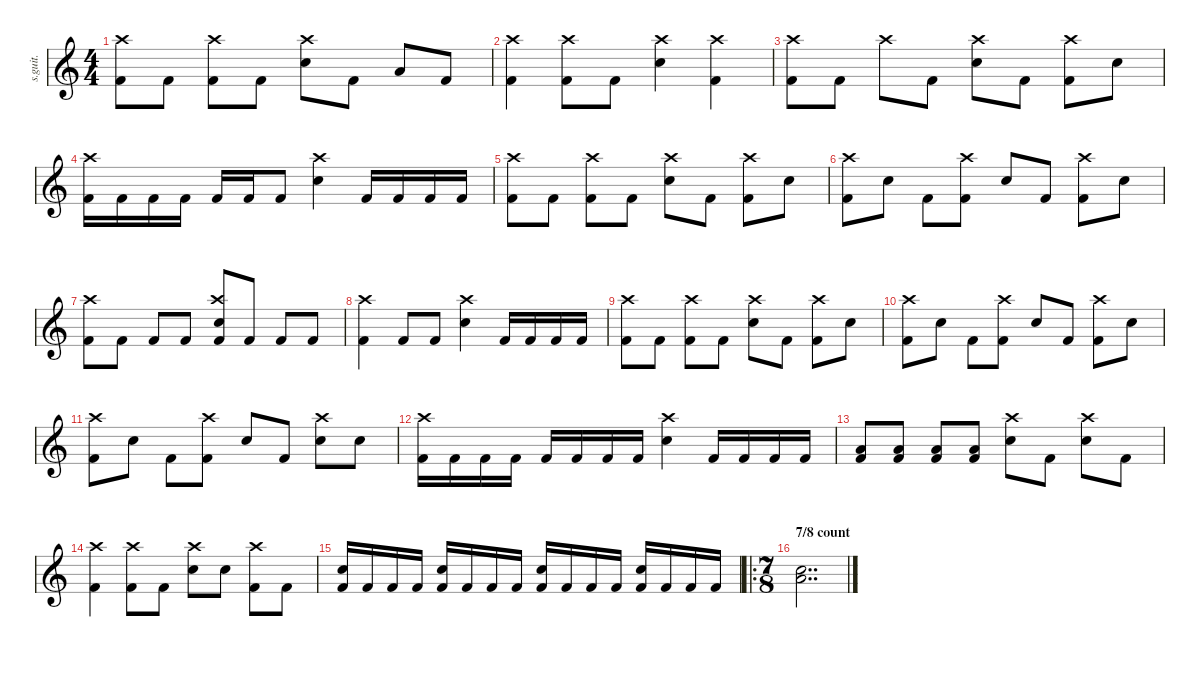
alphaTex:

\defaultSystemsLayout 4
\hideDynamics
\bracketExtendMode nobrackets
\track ("" "s.guit.") {instrument percussion}
\staff {score}
\articulation defaults
\ts (4 4)
\tempo (212 hide)
\clef g2
\ks c
("Kick (hit) 2" "Crash high (hit)").8{lyrics (0 "") lyrics (1 "") lyrics (2 "") lyrics (3 "") lyrics (4 "") dy f} "Kick (hit) 2".8{lyrics (0 "") lyrics (1 "") lyrics (2 "") lyrics (3 "") lyrics (4 "")} ("Kick (hit) 2" "Crash high (hit)").8{lyrics (0 "") lyrics (1 "") lyrics (2 "") lyrics (3 "") lyrics (4 "")} "Kick (hit) 2".8{lyrics (0 "") lyrics (1 "") lyrics (2 "") lyrics (3 "") lyrics (4 "")} ("Snare (hit) 2" "Crash high (hit)").8{lyrics (0 "") lyrics (1 "") lyrics (2 "") lyrics (3 "") lyrics (4 "")} "Kick (hit) 2".8{lyrics (0 "") lyrics (1 "") lyrics (2 "") lyrics (3 "") lyrics (4 "")} "Low Floor Tom (hit)".8{lyrics (0 "") lyrics (1 "") lyrics (2 "") lyrics (3 "") lyrics (4 "")} "Kick (hit) 2".8{lyrics (0 "") lyrics (1 "") lyrics (2 "") lyrics (3 "") lyrics (4 "")} |
("Kick (hit) 2" "Crash high (hit)").4{lyrics (0 "") lyrics (1 "") lyrics (2 "") lyrics (3 "") lyrics (4 "")} ("Kick (hit) 2" "Crash high (hit)").8{lyrics (0 "") lyrics (1 "") lyrics (2 "") lyrics (3 "") lyrics (4 "")} "Kick (hit) 2".8{lyrics (0 "") lyrics (1 "") lyrics (2 "") lyrics (3 "") lyrics (4 "")} ("Snare (hit) 2" "Crash high (hit)").4{lyrics (0 "") lyrics (1 "") lyrics (2 "") lyrics (3 "") lyrics (4 "")} ("Kick (hit) 2" "Crash high (hit)").4{lyrics (0 "") lyrics (1 "") lyrics (2 "") lyrics (3 "") lyrics (4 "")} |
("Kick (hit) 2" "Crash high (hit)").8{lyrics (0 "") lyrics (1 "") lyrics (2 "") lyrics (3 "") lyrics (4 "")} "Kick (hit) 2".8{lyrics (0 "") lyrics (1 "") lyrics (2 "") lyrics (3 "") lyrics (4 "")} "Crash high (hit)".8{lyrics (0 "") lyrics (1 "") lyrics (2 "") lyrics (3 "") lyrics (4 "")} "Kick (hit) 2".8{lyrics (0 "") lyrics (1 "") lyrics (2 "") lyrics (3 "") lyrics (4 "")} ("Snare (hit) 2" "Crash high (hit)").8{lyrics (0 "") lyrics (1 "") lyrics (2 "") lyrics (3 "") lyrics (4 "")} "Kick (hit) 2".8{lyrics (0 "") lyrics (1 "") lyrics (2 "") lyrics (3 "") lyrics (4 "")} ("Kick (hit) 2" "Crash high (hit)").8{lyrics (0 "") lyrics (1 "") lyrics (2 "") lyrics (3 "") lyrics (4 "")} "Snare (hit) 2".8{lyrics (0 "") lyrics (1 "") lyrics (2 "") lyrics (3 "") lyrics (4 "")} |
("Kick (hit) 2" "Crash high (hit)").16{lyrics (0 "") lyrics (1 "") lyrics (2 "") lyrics (3 "") lyrics (4 "")} "Kick (hit) 2".16{lyrics (0 "") lyrics (1 "") lyrics (2 "") lyrics (3 "") lyrics (4 "")} "Kick (hit) 2".16{lyrics (0 "") lyrics (1 "") lyrics (2 "") lyrics (3 "") lyrics (4 "")} "Kick (hit) 2".16{lyrics (0 "") lyrics (1 "") lyrics (2 "") lyrics (3 "") lyrics (4 "")} "Kick (hit) 2".16{lyrics (0 "") lyrics (1 "") lyrics (2 "") lyrics (3 "") lyrics (4 "")} "Kick (hit) 2".16{lyrics (0 "") lyrics (1 "") lyrics (2 "") lyrics (3 "") lyrics (4 "")} "Kick (hit) 2".8{lyrics (0 "") lyrics (1 "") lyrics (2 "") lyrics (3 "") lyrics (4 "")} ("Snare (hit) 2" "Crash high (hit)").4{lyrics (0 "") lyrics (1 "") lyrics (2 "") lyrics (3 "") lyrics (4 "")} "Kick (hit) 2".16{lyrics (0 "") lyrics (1 "") lyrics (2 "") lyrics (3 "") lyrics (4 "")} "Kick (hit) 2".16{lyrics (0 "") lyrics (1 "") lyrics (2 "") lyrics (3 "") lyrics (4 "")} "Kick (hit) 2".16{lyrics (0 "") lyrics (1 "") lyrics (2 "") lyrics (3 "") lyrics (4 "")} "Kick (hit) 2".16{lyrics (0 "") lyrics (1 "") lyrics (2 "") lyrics (3 "") lyrics (4 "")} |
("Kick (hit) 2" "Crash high (hit)").8{lyrics (0 "") lyrics (1 "") lyrics (2 "") lyrics (3 "") lyrics (4 "")} "Kick (hit) 2".8{lyrics (0 "") lyrics (1 "") lyrics (2 "") lyrics (3 "") lyrics (4 "")} ("Kick (hit) 2" "Crash high (hit)").8{lyrics (0 "") lyrics (1 "") lyrics (2 "") lyrics (3 "") lyrics (4 "")} "Kick (hit) 2".8{lyrics (0 "") lyrics (1 "") lyrics (2 "") lyrics (3 "") lyrics (4 "")} ("Snare (hit) 2" "Crash high (hit)").8{lyrics (0 "") lyrics (1 "") lyrics (2 "") lyrics (3 "") lyrics (4 "")} "Kick (hit) 2".8{lyrics (0 "") lyrics (1 "") lyrics (2 "") lyrics (3 "") lyrics (4 "")} ("Kick (hit) 2" "Crash high (hit)").8{lyrics (0 "") lyrics (1 "") lyrics (2 "") lyrics (3 "") lyrics (4 "")} "Snare (hit) 2".8{lyrics (0 "") lyrics (1 "") lyrics (2 "") lyrics (3 "") lyrics (4 "")} |
("Kick (hit) 2" "Crash high (hit)").8{lyrics (0 "") lyrics (1 "") lyrics (2 "") lyrics (3 "") lyrics (4 "")} "Snare (hit) 2".8{lyrics (0 "") lyrics (1 "") lyrics (2 "") lyrics (3 "") lyrics (4 "")} "Kick (hit) 2".8{lyrics (0 "") lyrics (1 "") lyrics (2 "") lyrics (3 "") lyrics (4 "")} ("Kick (hit) 2" "Crash high (hit)").8{lyrics (0 "") lyrics (1 "") lyrics (2 "") lyrics (3 "") lyrics (4 "")} "Snare (hit) 2".8{lyrics (0 "") lyrics (1 "") lyrics (2 "") lyrics (3 "") lyrics (4 "")} "Kick (hit) 2".8{lyrics (0 "") lyrics (1 "") lyrics (2 "") lyrics (3 "") lyrics (4 "")} ("Kick (hit) 2" "Crash high (hit)").8{lyrics (0 "") lyrics (1 "") lyrics (2 "") lyrics (3 "") lyrics (4 "")} "Snare (hit) 2".8{lyrics (0 "") lyrics (1 "") lyrics (2 "") lyrics (3 "") lyrics (4 "")} |
("Kick (hit) 2" "Crash high (hit)").8{lyrics (0 "") lyrics (1 "") lyrics (2 "") lyrics (3 "") lyrics (4 "")} "Kick (hit) 2".8{lyrics (0 "") lyrics (1 "") lyrics (2 "") lyrics (3 "") lyrics (4 "")} "Kick (hit) 2".8{lyrics (0 "") lyrics (1 "") lyrics (2 "") lyrics (3 "") lyrics (4 "")} "Kick (hit) 2".8{lyrics (0 "") lyrics (1 "") lyrics (2 "") lyrics (3 "") lyrics (4 "")} ("Kick (hit) 2" "Snare (hit) 2" "Crash high (hit)").8{lyrics (0 "") lyrics (1 "") lyrics (2 "") lyrics (3 "") lyrics (4 "")} "Kick (hit) 2".8{lyrics (0 "") lyrics (1 "") lyrics (2 "") lyrics (3 "") lyrics (4 "")} "Kick (hit) 2".8{lyrics (0 "") lyrics (1 "") lyrics (2 "") lyrics (3 "") lyrics (4 "")} "Kick (hit) 2".8{lyrics (0 "") lyrics (1 "") lyrics (2 "") lyrics (3 "") lyrics (4 "")} |
("Kick (hit) 2" "Crash high (hit)").4{lyrics (0 "") lyrics (1 "") lyrics (2 "") lyrics (3 "") lyrics (4 "")} "Kick (hit) 2".8{lyrics (0 "") lyrics (1 "") lyrics (2 "") lyrics (3 "") lyrics (4 "")} "Kick (hit) 2".8{lyrics (0 "") lyrics (1 "") lyrics (2 "") lyrics (3 "") lyrics (4 "")} ("Snare (hit) 2" "Crash high (hit)").4{lyrics (0 "") lyrics (1 "") lyrics (2 "") lyrics (3 "") lyrics (4 "")} "Kick (hit) 2".16{lyrics (0 "") lyrics (1 "") lyrics (2 "") lyrics (3 "") lyrics (4 "")} "Kick (hit) 2".16{lyrics (0 "") lyrics (1 "") lyrics (2 "") lyrics (3 "") lyrics (4 "")} "Kick (hit) 2".16{lyrics (0 "") lyrics (1 "") lyrics (2 "") lyrics (3 "") lyrics (4 "")} "Kick (hit) 2".16{lyrics (0 "") lyrics (1 "") lyrics (2 "") lyrics (3 "") lyrics (4 "")} |
("Kick (hit) 2" "Crash high (hit)").8{lyrics (0 "") lyrics (1 "") lyrics (2 "") lyrics (3 "") lyrics (4 "")} "Kick (hit) 2".8{lyrics (0 "") lyrics (1 "") lyrics (2 "") lyrics (3 "") lyrics (4 "")} ("Kick (hit) 2" "Crash high (hit)").8{lyrics (0 "") lyrics (1 "") lyrics (2 "") lyrics (3 "") lyrics (4 "")} "Kick (hit) 2".8{lyrics (0 "") lyrics (1 "") lyrics (2 "") lyrics (3 "") lyrics (4 "")} ("Snare (hit) 2" "Crash high (hit)").8{lyrics (0 "") lyrics (1 "") lyrics (2 "") lyrics (3 "") lyrics (4 "")} "Kick (hit) 2".8{lyrics (0 "") lyrics (1 "") lyrics (2 "") lyrics (3 "") lyrics (4 "")} ("Kick (hit) 2" "Crash high (hit)").8{lyrics (0 "") lyrics (1 "") lyrics (2 "") lyrics (3 "") lyrics (4 "")} "Snare (hit) 2".8{lyrics (0 "") lyrics (1 "") lyrics (2 "") lyrics (3 "") lyrics (4 "")} |
("Kick (hit) 2" "Crash high (hit)").8{lyrics (0 "") lyrics (1 "") lyrics (2 "") lyrics (3 "") lyrics (4 "")} "Snare (hit) 2".8{lyrics (0 "") lyrics (1 "") lyrics (2 "") lyrics (3 "") lyrics (4 "")} "Kick (hit) 2".8{lyrics (0 "") lyrics (1 "") lyrics (2 "") lyrics (3 "") lyrics (4 "")} ("Kick (hit) 2" "Crash high (hit)").8{lyrics (0 "") lyrics (1 "") lyrics (2 "") lyrics (3 "") lyrics (4 "")} "Snare (hit) 2".8{lyrics (0 "") lyrics (1 "") lyrics (2 "") lyrics (3 "") lyrics (4 "")} "Kick (hit) 2".8{lyrics (0 "") lyrics (1 "") lyrics (2 "") lyrics (3 "") lyrics (4 "")} ("Kick (hit) 2" "Crash high (hit)").8{lyrics (0 "") lyrics (1 "") lyrics (2 "") lyrics (3 "") lyrics (4 "")} "Snare (hit) 2".8{lyrics (0 "") lyrics (1 "") lyrics (2 "") lyrics (3 "") lyrics (4 "")} |
("Kick (hit) 2" "Crash high (hit)").8{lyrics (0 "") lyrics (1 "") lyrics (2 "") lyrics (3 "") lyrics (4 "")} "Snare (hit) 2".8{lyrics (0 "") lyrics (1 "") lyrics (2 "") lyrics (3 "") lyrics (4 "")} "Kick (hit) 2".8{lyrics (0 "") lyrics (1 "") lyrics (2 "") lyrics (3 "") lyrics (4 "")} ("Kick (hit) 2" "Crash high (hit)").8{lyrics (0 "") lyrics (1 "") lyrics (2 "") lyrics (3 "") lyrics (4 "")} "Snare (hit) 2".8{lyrics (0 "") lyrics (1 "") lyrics (2 "") lyrics (3 "") lyrics (4 "")} "Kick (hit) 2".8{lyrics (0 "") lyrics (1 "") lyrics (2 "") lyrics (3 "") lyrics (4 "")} ("Snare (hit) 2" "Crash high (hit)").8{lyrics (0 "") lyrics (1 "") lyrics (2 "") lyrics (3 "") lyrics (4 "")} "Snare (hit) 2".8{lyrics (0 "") lyrics (1 "") lyrics (2 "") lyrics (3 "") lyrics (4 "")} |
("Kick (hit) 2" "Crash high (hit)").16{lyrics (0 "") lyrics (1 "") lyrics (2 "") lyrics (3 "") lyrics (4 "")} "Kick (hit) 2".16{lyrics (0 "") lyrics (1 "") lyrics (2 "") lyrics (3 "") lyrics (4 "")} "Kick (hit) 2".16{lyrics (0 "") lyrics (1 "") lyrics (2 "") lyrics (3 "") lyrics (4 "")} "Kick (hit) 2".16{lyrics (0 "") lyrics (1 "") lyrics (2 "") lyrics (3 "") lyrics (4 "")} "Kick (hit) 2".16{lyrics (0 "") lyrics (1 "") lyrics (2 "") lyrics (3 "") lyrics (4 "")} "Kick (hit) 2".16{lyrics (0 "") lyrics (1 "") lyrics (2 "") lyrics (3 "") lyrics (4 "")} "Kick (hit) 2".16{lyrics (0 "") lyrics (1 "") lyrics (2 "") lyrics (3 "") lyrics (4 "")} "Kick (hit) 2".16{lyrics (0 "") lyrics (1 "") lyrics (2 "") lyrics (3 "") lyrics (4 "")} ("Snare (hit) 2" "Crash high (hit)").4{lyrics (0 "") lyrics (1 "") lyrics (2 "") lyrics (3 "") lyrics (4 "")} "Kick (hit) 2".16{lyrics (0 "") lyrics (1 "") lyrics (2 "") lyrics (3 "") lyrics (4 "")} "Kick (hit) 2".16{lyrics (0 "") lyrics (1 "") lyrics (2 "") lyrics (3 "") lyrics (4 "")} "Kick (hit) 2".16{lyrics (0 "") lyrics (1 "") lyrics (2 "") lyrics (3 "") lyrics (4 "")} "Kick (hit) 2".16{lyrics (0 "") lyrics (1 "") lyrics (2 "") lyrics (3 "") lyrics (4 "")} |
("Kick (hit) 2" "Low Floor Tom (hit)").8{lyrics (0 "") lyrics (1 "") lyrics (2 "") lyrics (3 "") lyrics (4 "")} ("Kick (hit) 2" "Low Floor Tom (hit)").8{lyrics (0 "") lyrics (1 "") lyrics (2 "") lyrics (3 "") lyrics (4 "")} ("Kick (hit) 2" "Low Floor Tom (hit)").8{lyrics (0 "") lyrics (1 "") lyrics (2 "") lyrics (3 "") lyrics (4 "")} ("Kick (hit) 2" "Low Floor Tom (hit)").8{lyrics (0 "") lyrics (1 "") lyrics (2 "") lyrics (3 "") lyrics (4 "")} ("Snare (hit) 2" "Crash high (hit)").8{lyrics (0 "") lyrics (1 "") lyrics (2 "") lyrics (3 "") lyrics (4 "")} "Kick (hit) 2".8{lyrics (0 "") lyrics (1 "") lyrics (2 "") lyrics (3 "") lyrics (4 "")} ("Snare (hit) 2" "Crash high (hit)").8{lyrics (0 "") lyrics (1 "") lyrics (2 "") lyrics (3 "") lyrics (4 "")} "Kick (hit) 2".8{lyrics (0 "") lyrics (1 "") lyrics (2 "") lyrics (3 "") lyrics (4 "")} |
("Kick (hit) 2" "Crash high (hit)").4{lyrics (0 "") lyrics (1 "") lyrics (2 "") lyrics (3 "") lyrics (4 "")} ("Kick (hit) 2" "Crash high (hit)").8{lyrics (0 "") lyrics (1 "") lyrics (2 "") lyrics (3 "") lyrics (4 "")} "Kick (hit) 2".8{lyrics (0 "") lyrics (1 "") lyrics (2 "") lyrics (3 "") lyrics (4 "")} ("Snare (hit) 2" "Crash high (hit)").8{lyrics (0 "") lyrics (1 "") lyrics (2 "") lyrics (3 "") lyrics (4 "")} "Snare (hit) 2".8{lyrics (0 "") lyrics (1 "") lyrics (2 "") lyrics (3 "") lyrics (4 "")} ("Kick (hit) 2" "Crash high (hit)").8{lyrics (0 "") lyrics (1 "") lyrics (2 "") lyrics (3 "") lyrics (4 "")} "Kick (hit) 2".8{lyrics (0 "") lyrics (1 "") lyrics (2 "") lyrics (3 "") lyrics (4 "")} |
("Kick (hit) 2" "Snare (hit) 2").16{lyrics (0 "") lyrics (1 "") lyrics (2 "") lyrics (3 "") lyrics (4 "")} "Kick (hit) 2".16{lyrics (0 "") lyrics (1 "") lyrics (2 "") lyrics (3 "") lyrics (4 "")} "Kick (hit) 2".16{lyrics (0 "") lyrics (1 "") lyrics (2 "") lyrics (3 "") lyrics (4 "")} "Kick (hit) 2".16{lyrics (0 "") lyrics (1 "") lyrics (2 "") lyrics (3 "") lyrics (4 "")} ("Kick (hit) 2" "Snare (hit) 2").16{lyrics (0 "") lyrics (1 "") lyrics (2 "") lyrics (3 "") lyrics (4 "")} "Kick (hit) 2".16{lyrics (0 "") lyrics (1 "") lyrics (2 "") lyrics (3 "") lyrics (4 "")} "Kick (hit) 2".16{lyrics (0 "") lyrics (1 "") lyrics (2 "") lyrics (3 "") lyrics (4 "")} "Kick (hit) 2".16{lyrics (0 "") lyrics (1 "") lyrics (2 "") lyrics (3 "") lyrics (4 "")} ("Kick (hit) 2" "Snare (hit) 2").16{lyrics (0 "") lyrics (1 "") lyrics (2 "") lyrics (3 "") lyrics (4 "")} "Kick (hit) 2".16{lyrics (0 "") lyrics (1 "") lyrics (2 "") lyrics (3 "") lyrics (4 "")} "Kick (hit) 2".16{lyrics (0 "") lyrics (1 "") lyrics (2 "") lyrics (3 "") lyrics (4 "")} "Kick (hit) 2".16{lyrics (0 "") lyrics (1 "") lyrics (2 "") lyrics (3 "") lyrics (4 "")} ("Kick (hit) 2" "Snare (hit) 2").16{lyrics (0 "") lyrics (1 "") lyrics (2 "") lyrics (3 "") lyrics (4 "")} "Kick (hit) 2".16{lyrics (0 "") lyrics (1 "") lyrics (2 "") lyrics (3 "") lyrics (4 "")} "Kick (hit) 2".16{lyrics (0 "") lyrics (1 "") lyrics (2 "") lyrics (3 "") lyrics (4 "")} "Kick (hit) 2".16{lyrics (0 "") lyrics (1 "") lyrics (2 "") lyrics (3 "") lyrics (4 "")} |
\ro
\ts (7 8)
\beaming (8 2 2 2 2)
\section ("" "7/8 count")
("Snare (hit) 2" "Low Floor Tom (hit)").2{dd lyrics (0 "") lyrics (1 "") lyrics (2 "") lyrics (3 "") lyrics (4 "")}
